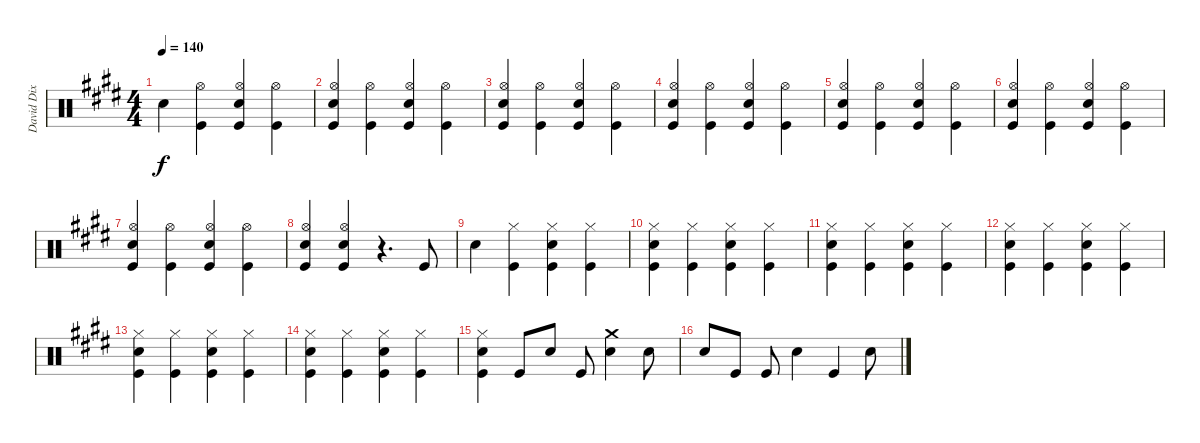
\track ("David Dix Drums" "David Dix ") {instrument percussion}
\staff {score}
\articulation defaults
\ts (4 4)
\tempo 140
\clef neutral
\ks e "Snare (hit) 2".4{dy f}
("Hi-Hat (open)" "Kick (hit)").4 ("Hi-Hat (open)" "Snare (hit) 2" "Kick (hit)").4 ("Hi-Hat (open)" "Kick (hit)").4 |
("Hi-Hat (open)" "Snare (hit) 2" "Kick (hit)").4 ("Hi-Hat (open)" "Kick (hit)").4 ("Hi-Hat (open)" "Snare (hit) 2" "Kick (hit)").4 ("Hi-Hat (open)" "Kick (hit)").4 |
("Hi-Hat (open)" "Snare (hit) 2" "Kick (hit)").4 ("Hi-Hat (open)" "Kick (hit)").4 ("Hi-Hat (open)" "Snare (hit) 2" "Kick (hit)").4 ("Hi-Hat (open)" "Kick (hit)").4 |
("Hi-Hat (open)" "Snare (hit) 2" "Kick (hit)").4 ("Hi-Hat (open)" "Kick (hit)").4 ("Hi-Hat (open)" "Snare (hit) 2" "Kick (hit)").4 ("Hi-Hat (open)" "Kick (hit)").4 |
("Hi-Hat (open)" "Snare (hit) 2" "Kick (hit)").4 ("Hi-Hat (open)" "Kick (hit)").4 ("Hi-Hat (open)" "Snare (hit) 2" "Kick (hit)").4 ("Hi-Hat (open)" "Kick (hit)").4 |
("Hi-Hat (open)" "Snare (hit) 2" "Kick (hit)").4 ("Hi-Hat (open)" "Kick (hit)").4 ("Hi-Hat (open)" "Snare (hit) 2" "Kick (hit)").4 ("Hi-Hat (open)" "Kick (hit)").4 |
("Hi-Hat (open)" "Snare (hit) 2" "Kick (hit)").4 ("Hi-Hat (open)" "Kick (hit)").4 ("Hi-Hat (open)" "Snare (hit) 2" "Kick (hit)").4 ("Hi-Hat (open)" "Kick (hit)").4 |
("Hi-Hat (open)" "Snare (hit) 2" "Kick (hit)").4 ("Hi-Hat (open)" "Snare (hit) 2" "Kick (hit)").4 r.4{d} "Kick (hit)".8 |
"Snare (hit) 2".4 ("Hi-Hat (closed)" "Kick (hit)").4 ("Hi-Hat (closed)" "Snare (hit) 2" "Kick (hit)").4 ("Hi-Hat (closed)" "Kick (hit)").4 |
("Hi-Hat (closed)" "Snare (hit) 2" "Kick (hit)").4 ("Hi-Hat (closed)" "Kick (hit)").4 ("Hi-Hat (closed)" "Snare (hit) 2" "Kick (hit)").4 ("Hi-Hat (closed)" "Kick (hit)").4 |
("Hi-Hat (closed)" "Snare (hit) 2" "Kick (hit)").4 ("Hi-Hat (closed)" "Kick (hit)").4 ("Hi-Hat (closed)" "Snare (hit) 2" "Kick (hit)").4 ("Hi-Hat (closed)" "Kick (hit)").4 |
("Hi-Hat (closed)" "Snare (hit) 2" "Kick (hit)").4 ("Hi-Hat (closed)" "Kick (hit)").4 ("Hi-Hat (closed)" "Snare (hit) 2" "Kick (hit)").4 ("Hi-Hat (closed)" "Kick (hit)").4 |
("Hi-Hat (closed)" "Snare (hit) 2" "Kick (hit)").4 ("Hi-Hat (closed)" "Kick (hit)").4 ("Hi-Hat (closed)" "Snare (hit) 2" "Kick (hit)").4 ("Hi-Hat (closed)" "Kick (hit)").4 |
("Hi-Hat (closed)" "Snare (hit) 2" "Kick (hit)").4 ("Hi-Hat (closed)" "Kick (hit)").4 ("Hi-Hat (closed)" "Snare (hit) 2" "Kick (hit)").4 ("Hi-Hat (closed)" "Kick (hit)").4 |
("Hi-Hat (closed)" "Snare (hit) 2" "Kick (hit)").4 "Kick (hit)".8 "Snare (hit) 2".8 "Kick (hit)".8 ("Crash medium (hit)" "Snare (hit) 2").4 "Snare (hit) 2".8 |
"Snare (hit) 2".8 "Kick (hit)".8 "Kick (hit)".8 "Snare (hit) 2".4 "Kick (hit)".4 "Snare (hit) 2".8
